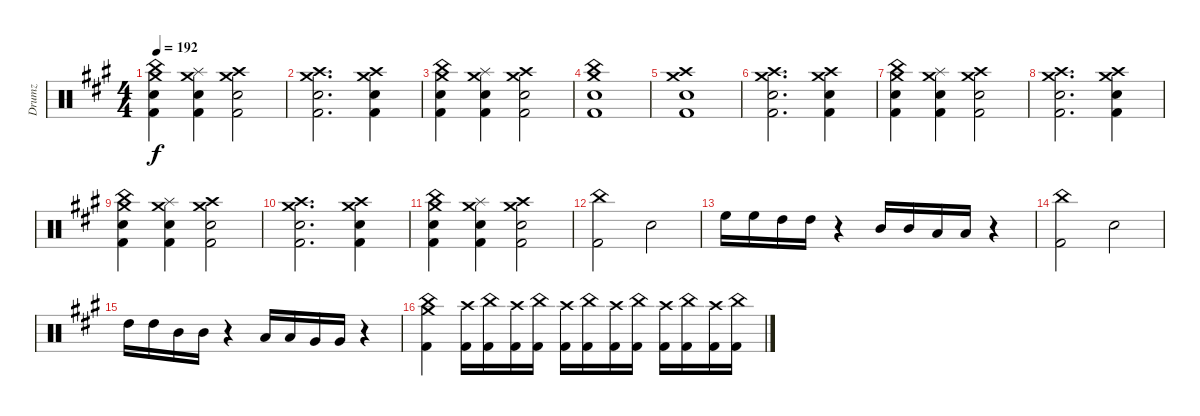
\track ("Drumz" "Drumz") {instrument percussion}
\staff {score}
\articulation defaults
\ts (4 4)
\tempo 192
\clef neutral
\ks a
("Snare (hit) 2" "Kick (hit) 2" "China (hit)" "Crash medium (hit)").4{dy f} ("Snare (hit) 2" "Kick (hit) 2" "Splash (hit)" "Crash medium (hit)").4 ("Snare (hit) 2" "Kick (hit) 2" "Crash high (hit)" "Crash medium (hit)").2 |
("Kick (hit) 2" "Snare (hit) 2" "Crash high (hit)" "Crash medium (hit)").2{d} ("Kick (hit) 2" "Snare (hit) 2" "Crash high (hit)" "Crash medium (hit)").4 |
("Snare (hit) 2" "Kick (hit) 2" "China (hit)" "Crash medium (hit)").4 ("Snare (hit) 2" "Kick (hit) 2" "Splash (hit)" "Crash medium (hit)").4 ("Snare (hit) 2" "Kick (hit) 2" "Crash high (hit)" "Crash medium (hit)").2 |
("Snare (hit) 2" "Kick (hit) 2" "China (hit)" "Crash medium (hit)").1 |
("Snare (hit) 2" "Kick (hit) 2" "Crash high (hit)" "Crash medium (hit)").1 |
("Kick (hit) 2" "Snare (hit) 2" "Crash high (hit)" "Crash medium (hit)").2{d} ("Kick (hit) 2" "Snare (hit) 2" "Crash high (hit)" "Crash medium (hit)").4 |
("Snare (hit) 2" "Kick (hit) 2" "China (hit)" "Crash medium (hit)").4 ("Snare (hit) 2" "Kick (hit) 2" "Splash (hit)" "Crash medium (hit)").4 ("Snare (hit) 2" "Kick (hit) 2" "Crash high (hit)" "Crash medium (hit)").2 |
("Kick (hit) 2" "Snare (hit) 2" "Crash high (hit)" "Crash medium (hit)").2{d} ("Kick (hit) 2" "Snare (hit) 2" "Crash high (hit)" "Crash medium (hit)").4 |
("Snare (hit) 2" "Kick (hit) 2" "China (hit)" "Crash medium (hit)").4 ("Snare (hit) 2" "Kick (hit) 2" "Splash (hit)" "Crash medium (hit)").4 ("Snare (hit) 2" "Kick (hit) 2" "Crash high (hit)" "Crash medium (hit)").2 |
("Kick (hit) 2" "Snare (hit) 2" "Crash high (hit)" "Crash medium (hit)").2{d} ("Kick (hit) 2" "Snare (hit) 2" "Crash high (hit)" "Crash medium (hit)").4 |
("Snare (hit) 2" "Kick (hit) 2" "China (hit)" "Crash medium (hit)").4 ("Snare (hit) 2" "Kick (hit) 2" "Splash (hit)" "Crash medium (hit)").4 ("Snare (hit) 2" "Kick (hit) 2" "Crash high (hit)" "Crash medium (hit)").2 |
("Kick (hit) 2" "China (hit)").2 "Snare (hit) 2".2 |
"High Floor Tom (hit)".16 "High Floor Tom (hit)".16 "High Tom (hit)".16 "High Tom (hit)".16 r.4 "Mid Tom (hit)".16 "Mid Tom (hit)".16 "Low Tom (hit)".16 "Low Tom (hit)".16 r.4 |
("Kick (hit) 2" "China (hit)").2 "Snare (hit) 2".2 |
"High Tom (hit)".16 "High Tom (hit)".16 "Mid Tom (hit)".16 "Mid Tom (hit)".16 r.4 "Low Tom (hit)".16 "Low Tom (hit)".16 "Very Low Tom (hit)".16 "Very Low Tom (hit)".16 r.4 |
("Kick (hit) 2" "China (hit)" "Crash medium (hit)").4 ("Kick (hit) 2" "Crash high (hit)").16 ("Kick (hit) 2" "China (hit)").16 ("Kick (hit) 2" "Crash high (hit)").16 ("Kick (hit) 2" "China (hit)").16 ("Kick (hit) 2" "Crash high (hit)").16 ("Kick (hit) 2" "China (hit)").16 ("Kick (hit) 2" "Crash high (hit)").16 ("Kick (hit) 2" "China (hit)").16 ("Kick (hit) 2" "Crash high (hit)").16 ("Kick (hit) 2" "China (hit)").16 ("Kick (hit) 2" "Crash high (hit)").16 ("Kick (hit) 2" "China (hit)").16
